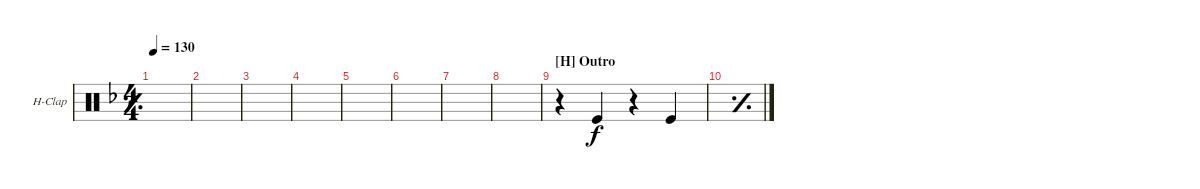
\defaultSystemsLayout 4
\bracketExtendMode groupsimilarinstruments
\firstSystemTrackNameOrientation horizontal
\otherSystemsTrackNameOrientation horizontal
\track ("Hand Clap" "H-Clap") {instrument percussion}
\staff {score}
\articulation defaults
\ts (4 4)
\tempo 130
\clef neutral
\simile simple
\ks f
|
|
|
|
|
|
|
|
\section ("H" "Outro")
r.4 "Kick (hit)".4 r.4 "Kick (hit)".4 |
\simile simple
